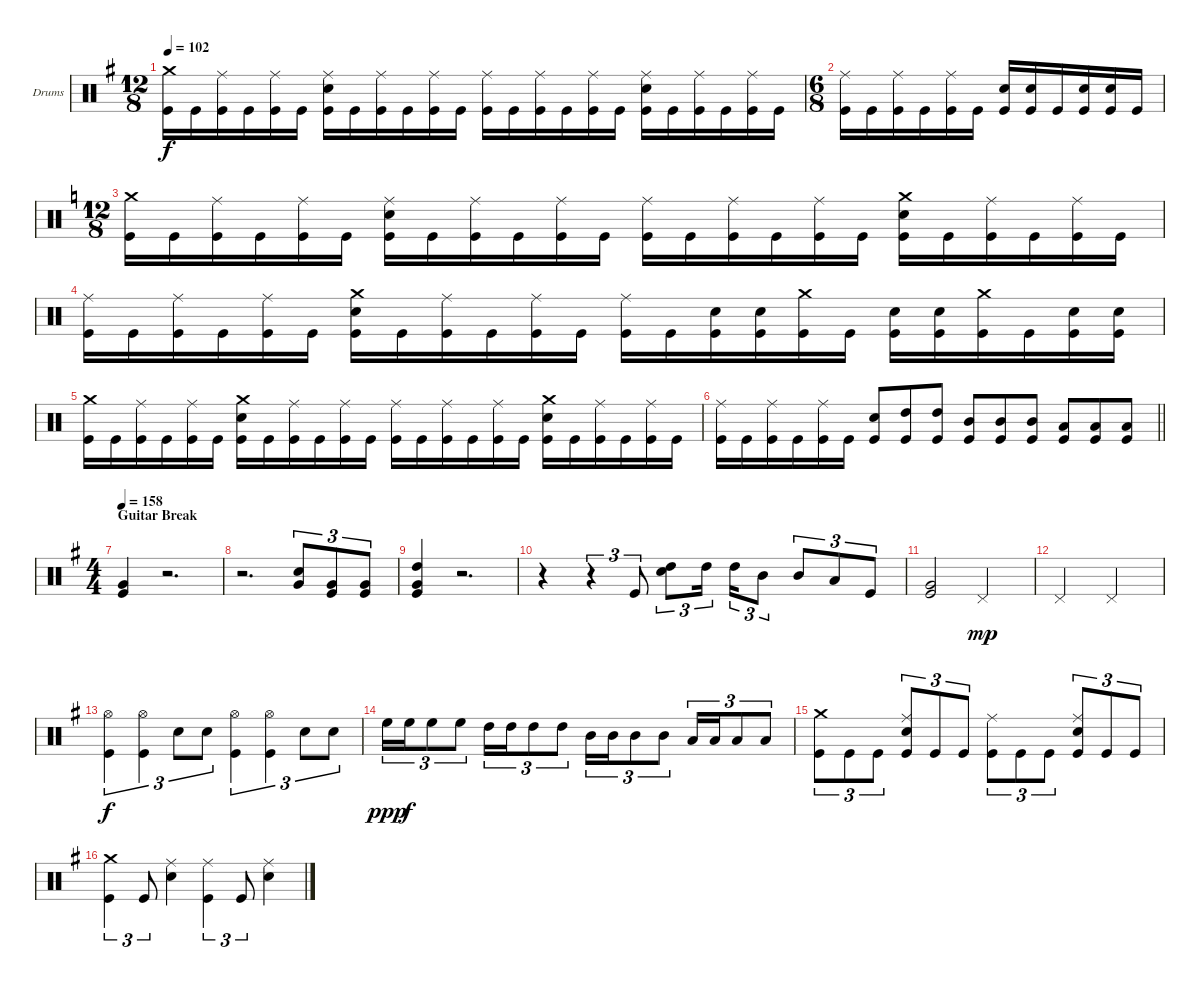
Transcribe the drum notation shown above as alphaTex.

\bracketExtendMode groupsimilarinstruments
\firstSystemTrackNameOrientation horizontal
\otherSystemsTrackNameOrientation horizontal
\track ("Барабаны" "Drums") {instrument percussion}
\staff {score}
\articulation defaults
\ts (12 8)
\tempo 102
\clef neutral
\ks eminor
("Kick (hit)" "Crash medium (hit)").16{dy f} "Kick (hit)".16 ("Kick (hit)" "Ride (middle)").16 "Kick (hit)".16 ("Kick (hit)" "Ride (middle)").16 "Kick (hit)".16 ("Kick (hit)" "Snare (hit) 2" "Ride (middle)").16 "Kick (hit)".16 ("Kick (hit)" "Ride (middle)").16 "Kick (hit)".16 ("Kick (hit)" "Ride (middle)").16 "Kick (hit)".16 ("Kick (hit)" "Ride (middle)").16 "Kick (hit)".16 ("Kick (hit)" "Ride (middle)").16 "Kick (hit)".16 ("Kick (hit)" "Ride (middle)").16 "Kick (hit)".16 ("Kick (hit)" "Snare (hit) 2" "Ride (middle)").16 "Kick (hit)".16 ("Kick (hit)" "Ride (middle)").16 "Kick (hit)".16 ("Kick (hit)" "Ride (middle)").16 "Kick (hit)".16 |
\ts (6 8)
\beaming (8 3 3)
("Kick (hit)" "Ride (middle)").16 "Kick (hit)".16 ("Kick (hit)" "Ride (middle)").16 "Kick (hit)".16 ("Kick (hit)" "Ride (middle)").16 "Kick (hit)".16 ("Kick (hit)" "Snare (hit) 2").16 ("Kick (hit)" "Snare (hit) 2").16 "Kick (hit)".16 ("Kick (hit)" "Snare (hit) 2").16 ("Kick (hit)" "Snare (hit) 2").16 "Kick (hit)".16 |
\ts (12 8)
\beaming (8 3 3 3 3)
\ks aminor
("Kick (hit)" "Crash medium (hit)").16 "Kick (hit)".16 ("Kick (hit)" "Ride (middle)").16 "Kick (hit)".16 ("Kick (hit)" "Ride (middle)").16 "Kick (hit)".16 ("Kick (hit)" "Snare (hit) 2" "Ride (middle)").16 "Kick (hit)".16 ("Kick (hit)" "Ride (middle)").16 "Kick (hit)".16 ("Kick (hit)" "Ride (middle)").16 "Kick (hit)".16 ("Kick (hit)" "Ride (middle)").16 "Kick (hit)".16 ("Kick (hit)" "Ride (middle)").16 "Kick (hit)".16 ("Kick (hit)" "Ride (middle)").16 "Kick (hit)".16 ("Kick (hit)" "Snare (hit) 2" "Crash medium (hit)").16 "Kick (hit)".16 ("Kick (hit)" "Ride (middle)").16 "Kick (hit)".16 ("Kick (hit)" "Ride (middle)").16 "Kick (hit)".16 |
("Kick (hit)" "Ride (middle)").16 "Kick (hit)".16 ("Kick (hit)" "Ride (middle)").16 "Kick (hit)".16 ("Kick (hit)" "Ride (middle)").16 "Kick (hit)".16 ("Kick (hit)" "Snare (hit) 2" "Crash medium (hit)").16 "Kick (hit)".16 ("Kick (hit)" "Ride (middle)").16 "Kick (hit)".16 ("Kick (hit)" "Ride (middle)").16 "Kick (hit)".16 ("Kick (hit)" "Ride (middle)").16 "Kick (hit)".16 ("Kick (hit)" "Snare (hit) 2").16 ("Kick (hit)" "Snare (hit) 2").16 ("Kick (hit)" "Crash medium (hit)").16 "Kick (hit)".16 ("Kick (hit)" "Snare (hit) 2").16 ("Kick (hit)" "Snare (hit) 2").16 ("Kick (hit)" "Crash medium (hit)").16 "Kick (hit)".16 ("Kick (hit)" "Snare (hit) 2").16 ("Kick (hit)" "Snare (hit) 2").16 |
("Kick (hit)" "Crash medium (hit)").16 "Kick (hit)".16 ("Kick (hit)" "Ride (middle)").16 "Kick (hit)".16 ("Kick (hit)" "Ride (middle)").16 "Kick (hit)".16 ("Kick (hit)" "Snare (hit) 2" "Crash medium (hit)").16 "Kick (hit)".16 ("Kick (hit)" "Ride (middle)").16 "Kick (hit)".16 ("Kick (hit)" "Ride (middle)").16 "Kick (hit)".16 ("Kick (hit)" "Ride (middle)").16 "Kick (hit)".16 ("Kick (hit)" "Ride (middle)").16 "Kick (hit)".16 ("Kick (hit)" "Ride (middle)").16 "Kick (hit)".16 ("Kick (hit)" "Snare (hit) 2" "Crash medium (hit)").16 "Kick (hit)".16 ("Kick (hit)" "Ride (middle)").16 "Kick (hit)".16 ("Kick (hit)" "Ride (middle)").16 "Kick (hit)".16 |
\barLineRight lightlight
("Kick (hit)" "Ride (middle)").16 "Kick (hit)".16 ("Kick (hit)" "Ride (middle)").16 "Kick (hit)".16 ("Kick (hit)" "Ride (middle)").16 "Kick (hit)".16 ("Kick (hit)" "Snare (hit) 2").8 ("High Tom (hit)" "Kick (hit)").8 ("High Tom (hit)" "Kick (hit)").8 ("Mid Tom (hit)" "Kick (hit)").8 ("Mid Tom (hit)" "Kick (hit)").8 ("Mid Tom (hit)" "Kick (hit)").8 ("Low Tom (hit)" "Kick (hit)").8 ("Low Tom (hit)" "Kick (hit)").8 ("Low Tom (hit)" "Kick (hit)").8 |
\ts (4 4)
\beaming (8 2 2 2 2)
\section ("" "Guitar Break")
\tempo 158
\ks eminor
("Kick (hit)" "Very Low Tom (hit)").4 r.2{d} |
r.2{d} ("Very Low Tom (hit)" "Snare (hit) 2").8{tu (3 2)} ("Kick (hit)" "Very Low Tom (hit)").8{tu (3 2)} ("Kick (hit)" "Very Low Tom (hit)").8{tu (3 2)} |
("High Tom (hit)" "Very Low Tom (hit)" "Kick (hit)").4 r.2{d} |
r.4 r.4{tu (3 2)} "Kick (hit)".8{tu (3 2)} ("Snare (hit) 2" "High Tom (hit)").8{tu (3 2)} "High Tom (hit)".16{tu (3 2)} "High Tom (hit)".16{tu (3 2)} "Mid Tom (hit)".8{tu (3 2)} "Mid Tom (hit)".8{tu (3 2)} "Low Tom (hit)".8{tu (3 2)} "Kick (hit)".8{tu (3 2)} |
("Kick (hit)" "Very Low Tom (hit)").2 "Pedal Hi-Hat (hit)".2{dy mp} |
"Pedal Hi-Hat (hit)".2 "Pedal Hi-Hat (hit)".2 |
("Kick (hit)" "Hi-Hat (open)").4{tu (3 2) dy f} ("Kick (hit)" "Hi-Hat (open)").4{tu (3 2)} "Snare (hit) 2".8{tu (3 2)} "Snare (hit) 2".8{tu (3 2)} ("Kick (hit)" "Hi-Hat (open)").4{tu (3 2)} ("Kick (hit)" "Hi-Hat (open)").4{tu (3 2)} "Snare (hit) 2".8{tu (3 2)} "Snare (hit) 2".8{tu (3 2)} |
"High Floor Tom (hit)".16{tu (3 2) dy ppp} "High Floor Tom (hit)".16{tu (3 2) dy f} "High Floor Tom (hit)".8{tu (3 2)} "High Floor Tom (hit)".8{tu (3 2)} "High Tom (hit)".16{tu (3 2)} "High Tom (hit)".16{tu (3 2)} "High Tom (hit)".8{tu (3 2)} "High Tom (hit)".8{tu (3 2)} "Mid Tom (hit)".16{tu (3 2)} "Mid Tom (hit)".16{tu (3 2)} "Mid Tom (hit)".8{tu (3 2)} "Mid Tom (hit)".8{tu (3 2)} "Low Tom (hit)".16{tu (3 2)} "Low Tom (hit)".16{tu (3 2)} "Low Tom (hit)".8{tu (3 2)} "Low Tom (hit)".8{tu (3 2)} |
("Kick (hit)" "Crash medium (hit)").8{tu (3 2)} "Kick (hit)".8{tu (3 2)} "Kick (hit)".8{tu (3 2)} ("Kick (hit)" "Snare (hit) 2" "Ride (middle)").8{tu (3 2)} "Kick (hit)".8{tu (3 2)} "Kick (hit)".8{tu (3 2)} ("Kick (hit)" "Ride (middle)").8{tu (3 2)} "Kick (hit)".8{tu (3 2)} "Kick (hit)".8{tu (3 2)} ("Kick (hit)" "Snare (hit) 2" "Ride (middle)").8{tu (3 2)} "Kick (hit)".8{tu (3 2)} "Kick (hit)".8{tu (3 2)} |
("Kick (hit)" "Crash medium (hit)").4{tu (3 2)} "Kick (hit)".8{tu (3 2)} ("Snare (hit) 2" "Ride (middle)").4 ("Kick (hit)" "Ride (middle)").4{tu (3 2)} "Kick (hit)".8{tu (3 2)} ("Snare (hit) 2" "Ride (middle)").4
